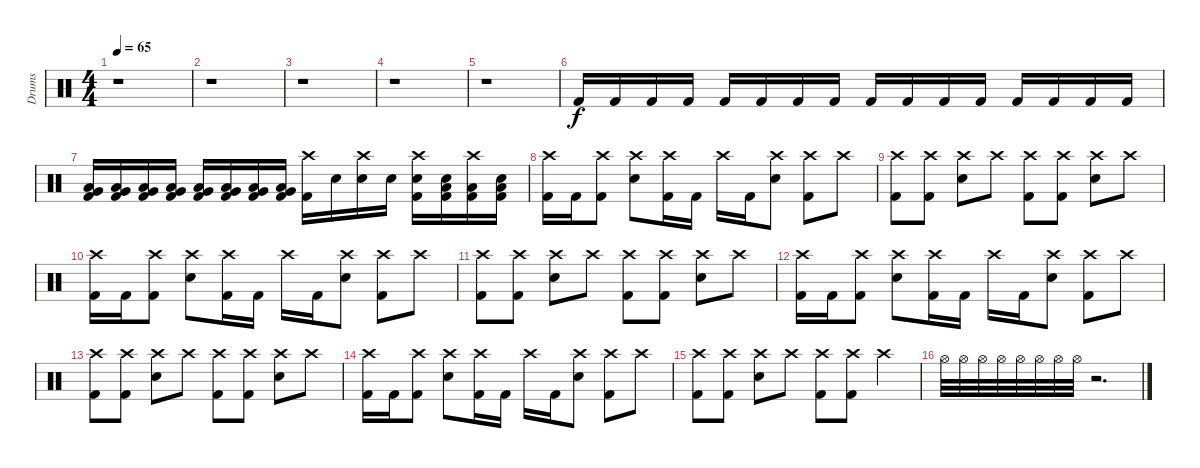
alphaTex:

\track ("Drums" "Drums") {instrument percussion}
\staff {score}
\articulation defaults
\ts (4 4)
\tempo 65
\clef neutral
\ks c
r.1{dy f} |
r.1 |
r.1 |
r.1 |
r.1 |
"Kick (hit) 2".16 "Kick (hit) 2".16 "Kick (hit) 2".16 "Kick (hit) 2".16 "Kick (hit) 2".16 "Kick (hit) 2".16 "Kick (hit) 2".16 "Kick (hit) 2".16 "Kick (hit) 2".16 "Kick (hit) 2".16 "Kick (hit) 2".16 "Kick (hit) 2".16 "Kick (hit) 2".16 "Kick (hit) 2".16 "Kick (hit) 2".16 "Kick (hit) 2".16 |
("Low Tom (hit)" "Very Low Tom (hit)" "Kick (hit) 2").16 ("Low Tom (hit)" "Very Low Tom (hit)" "Kick (hit) 2").16 ("Low Tom (hit)" "Very Low Tom (hit)" "Kick (hit) 2").16 ("Low Tom (hit)" "Very Low Tom (hit)" "Kick (hit) 2").16 ("Low Tom (hit)" "Very Low Tom (hit)" "Kick (hit) 2").16 ("Low Tom (hit)" "Very Low Tom (hit)" "Kick (hit) 2").16 ("Low Tom (hit)" "Very Low Tom (hit)" "Kick (hit) 2").16 ("Low Tom (hit)" "Very Low Tom (hit)" "Kick (hit) 2").16 ("Crash high (hit)" "Kick (hit) 2").16 "Electric Snare (hit)".16 ("Crash high (hit)" "Electric Snare (hit)").16 "Electric Snare (hit)".16 ("Crash high (hit)" "Electric Snare (hit)" "Kick (hit) 2").16 ("Electric Snare (hit)" "Low Tom (hit)" "Kick (hit) 2").16 ("Crash high (hit)" "Low Tom (hit)" "Kick (hit) 2").16 ("Electric Snare (hit)" "Low Tom (hit)" "Kick (hit) 2").16 |
("Crash high (hit)" "Kick (hit) 2").16 "Kick (hit) 2".16 ("Crash high (hit)" "Kick (hit) 2").8 ("Crash high (hit)" "Electric Snare (hit)").8 ("Crash high (hit)" "Kick (hit) 2").16 "Kick (hit) 2".16 "Crash high (hit)".16 "Kick (hit) 2".16 ("Crash high (hit)" "Electric Snare (hit)").8 ("Crash high (hit)" "Kick (hit) 2").8 "Crash high (hit)".8 |
("Crash high (hit)" "Kick (hit) 2").8 ("Crash high (hit)" "Kick (hit) 2").8 ("Crash high (hit)" "Electric Snare (hit)").8 "Crash high (hit)".8 ("Crash high (hit)" "Kick (hit) 2").8 ("Crash high (hit)" "Kick (hit) 2").8 ("Crash high (hit)" "Electric Snare (hit)").8 "Crash high (hit)".8 |
("Crash high (hit)" "Kick (hit) 2").16 "Kick (hit) 2".16 ("Crash high (hit)" "Kick (hit) 2").8 ("Crash high (hit)" "Electric Snare (hit)").8 ("Crash high (hit)" "Kick (hit) 2").16 "Kick (hit) 2".16 "Crash high (hit)".16 "Kick (hit) 2".16 ("Crash high (hit)" "Electric Snare (hit)").8 ("Crash high (hit)" "Kick (hit) 2").8 "Crash high (hit)".8 |
("Crash high (hit)" "Kick (hit) 2").8 ("Crash high (hit)" "Kick (hit) 2").8 ("Crash high (hit)" "Electric Snare (hit)").8 "Crash high (hit)".8 ("Crash high (hit)" "Kick (hit) 2").8 ("Crash high (hit)" "Kick (hit) 2").8 ("Crash high (hit)" "Electric Snare (hit)").8 "Crash high (hit)".8 |
("Crash high (hit)" "Kick (hit) 2").16 "Kick (hit) 2".16 ("Crash high (hit)" "Kick (hit) 2").8 ("Crash high (hit)" "Electric Snare (hit)").8 ("Crash high (hit)" "Kick (hit) 2").16 "Kick (hit) 2".16 "Crash high (hit)".16 "Kick (hit) 2".16 ("Crash high (hit)" "Electric Snare (hit)").8 ("Crash high (hit)" "Kick (hit) 2").8 "Crash high (hit)".8 |
("Crash high (hit)" "Kick (hit) 2").8 ("Crash high (hit)" "Kick (hit) 2").8 ("Crash high (hit)" "Electric Snare (hit)").8 "Crash high (hit)".8 ("Crash high (hit)" "Kick (hit) 2").8 ("Crash high (hit)" "Kick (hit) 2").8 ("Crash high (hit)" "Electric Snare (hit)").8 "Crash high (hit)".8 |
("Crash high (hit)" "Kick (hit) 2").16 "Kick (hit) 2".16 ("Crash high (hit)" "Kick (hit) 2").8 ("Crash high (hit)" "Electric Snare (hit)").8 ("Crash high (hit)" "Kick (hit) 2").16 "Kick (hit) 2".16 "Crash high (hit)".16 "Kick (hit) 2".16 ("Crash high (hit)" "Electric Snare (hit)").8 ("Crash high (hit)" "Kick (hit) 2").8 "Crash high (hit)".8 |
("Crash high (hit)" "Kick (hit) 2").8 ("Crash high (hit)" "Kick (hit) 2").8 ("Crash high (hit)" "Electric Snare (hit)").8 "Crash high (hit)".8 ("Crash high (hit)" "Kick (hit) 2").8 ("Crash high (hit)" "Kick (hit) 2").8 "Crash high (hit)".4 |
"Hi-Hat (open)".32 "Hi-Hat (open)".32 "Hi-Hat (open)".32 "Hi-Hat (open)".32 "Hi-Hat (open)".32 "Hi-Hat (open)".32 "Hi-Hat (open)".32 "Hi-Hat (open)".32 r.2{d}
